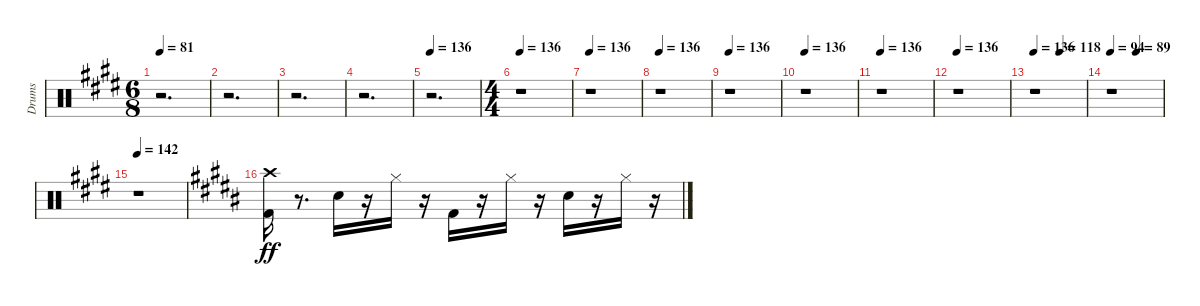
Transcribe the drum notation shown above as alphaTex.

\track ("Drums" "Drums") {instrument percussion}
\staff {score}
\articulation defaults
\ts (6 8)
\tempo 81
\clef neutral
\ks c#minor
r.2{d dy ff} |
r.2{d} |
r.2{d} |
r.2{d} |
\tempo 136
r.2{d} |
\ts (4 4)
\tempo 136
r.1 |
\tempo 136
r.1 |
\tempo 136
r.1 |
\tempo 136
r.1 |
\tempo 136
r.1 |
\tempo 136
r.1 |
\tempo 136
r.1 |
\tempo 136
\tempo (118 0.5)
r.1 |
\tempo 94
\tempo (89 0.5)
r.1 |
\tempo 142
r.1 |
\ks g#minor
("Kick (hit) 2" "Crash high (hit)").16 r.8{d} "Electric Snare (hit)".16 r.16 "Hi-Hat (closed)".16 r.16 "Kick (hit) 2".16 r.16 "Hi-Hat (closed)".16 r.16 "Electric Snare (hit)".16 r.16 "Hi-Hat (closed)".16 r.16
